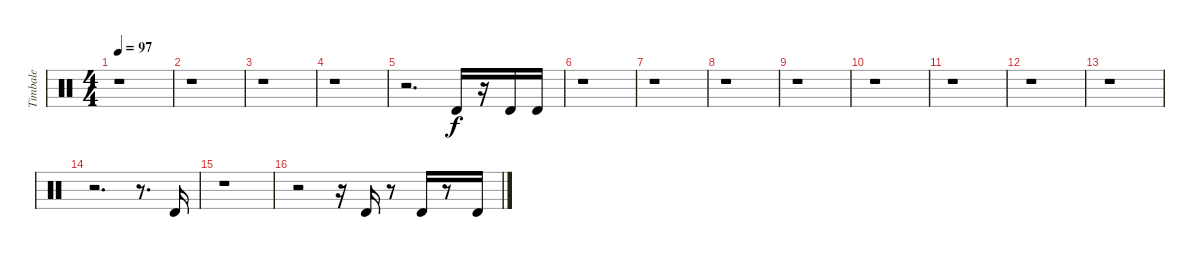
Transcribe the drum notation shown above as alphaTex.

\track ("Timbale" "Timbale") {instrument percussion}
\staff {score}
\articulation defaults
\ts (4 4)
\tempo 97
\clef neutral
\ks c
r.1{dy f} |
r.1 |
r.1 |
r.1 |
r.2{d} "Timbale high (hit)".16 r.16 "Timbale high (hit)".16 "Timbale high (hit)".16 |
r.1 |
r.1 |
r.1 |
r.1 |
r.1 |
r.1 |
r.1 |
r.1 |
r.2{d} r.8{d} "Timbale high (hit)".16 |
r.1 |
r.2 r.16 "Timbale high (hit)".16 r.8 "Timbale high (hit)".16 r.8 "Timbale high (hit)".16
